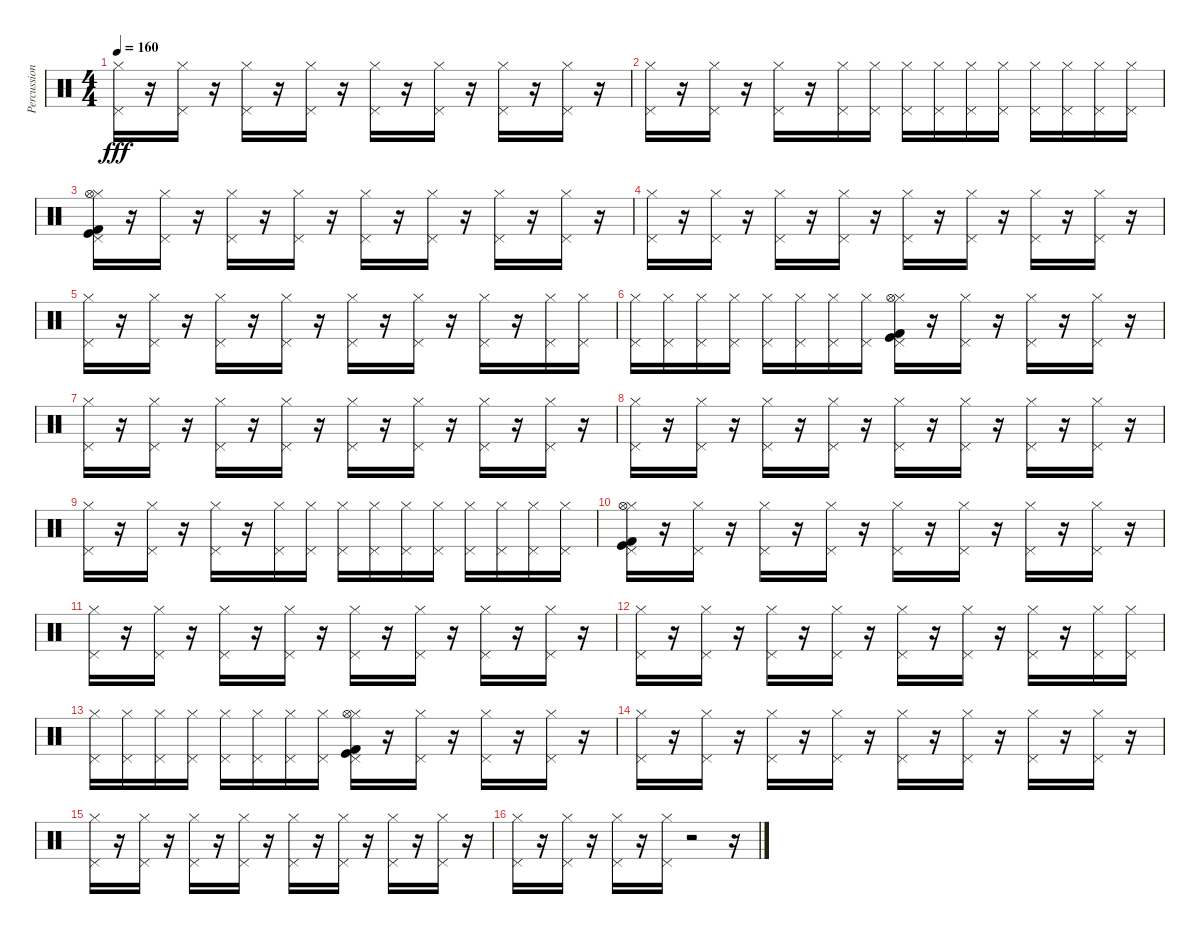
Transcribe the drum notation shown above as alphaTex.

\track ("Percussion" "Percussion") {instrument percussion}
\staff {score}
\articulation defaults
\ts (4 4)
\tempo 160
\clef neutral
\ks c
("Pedal Hi-Hat (hit)" "Hi-Hat (closed)").16{dy fff} r.16 ("Pedal Hi-Hat (hit)" "Hi-Hat (closed)").16 r.16 ("Pedal Hi-Hat (hit)" "Hi-Hat (closed)").16 r.16 ("Pedal Hi-Hat (hit)" "Hi-Hat (closed)").16 r.16 ("Pedal Hi-Hat (hit)" "Hi-Hat (closed)").16 r.16 ("Pedal Hi-Hat (hit)" "Hi-Hat (closed)").16 r.16 ("Pedal Hi-Hat (hit)" "Hi-Hat (closed)").16 r.16 ("Pedal Hi-Hat (hit)" "Hi-Hat (closed)").16 r.16 |
("Pedal Hi-Hat (hit)" "Hi-Hat (closed)").16 r.16 ("Pedal Hi-Hat (hit)" "Hi-Hat (closed)").16 r.16 ("Pedal Hi-Hat (hit)" "Hi-Hat (closed)").16 r.16 ("Pedal Hi-Hat (hit)" "Hi-Hat (closed)").16 ("Hi-Hat (closed)" "Pedal Hi-Hat (hit)").16 ("Pedal Hi-Hat (hit)" "Hi-Hat (closed)").16 ("Hi-Hat (closed)" "Pedal Hi-Hat (hit)").16 ("Hi-Hat (closed)" "Pedal Hi-Hat (hit)").16 ("Hi-Hat (closed)" "Pedal Hi-Hat (hit)").16 ("Pedal Hi-Hat (hit)" "Hi-Hat (closed)").16 ("Hi-Hat (closed)" "Pedal Hi-Hat (hit)").16 ("Hi-Hat (closed)" "Pedal Hi-Hat (hit)").16 ("Hi-Hat (closed)" "Pedal Hi-Hat (hit)").16 |
("Kick (hit) 2" "Pedal Hi-Hat (hit)" "Hi-Hat (closed)" "Kick (hit)" "Hi-Hat (open)").16 r.16 ("Pedal Hi-Hat (hit)" "Hi-Hat (closed)").16 r.16 ("Pedal Hi-Hat (hit)" "Hi-Hat (closed)").16 r.16 ("Pedal Hi-Hat (hit)" "Hi-Hat (closed)").16 r.16 ("Pedal Hi-Hat (hit)" "Hi-Hat (closed)").16 r.16 ("Pedal Hi-Hat (hit)" "Hi-Hat (closed)").16 r.16 ("Pedal Hi-Hat (hit)" "Hi-Hat (closed)").16 r.16 ("Pedal Hi-Hat (hit)" "Hi-Hat (closed)").16 r.16 |
("Pedal Hi-Hat (hit)" "Hi-Hat (closed)").16 r.16 ("Pedal Hi-Hat (hit)" "Hi-Hat (closed)").16 r.16 ("Pedal Hi-Hat (hit)" "Hi-Hat (closed)").16 r.16 ("Pedal Hi-Hat (hit)" "Hi-Hat (closed)").16 r.16 ("Pedal Hi-Hat (hit)" "Hi-Hat (closed)").16 r.16 ("Pedal Hi-Hat (hit)" "Hi-Hat (closed)").16 r.16 ("Pedal Hi-Hat (hit)" "Hi-Hat (closed)").16 r.16 ("Pedal Hi-Hat (hit)" "Hi-Hat (closed)").16 r.16 |
("Pedal Hi-Hat (hit)" "Hi-Hat (closed)").16 r.16 ("Pedal Hi-Hat (hit)" "Hi-Hat (closed)").16 r.16 ("Pedal Hi-Hat (hit)" "Hi-Hat (closed)").16 r.16 ("Pedal Hi-Hat (hit)" "Hi-Hat (closed)").16 r.16 ("Pedal Hi-Hat (hit)" "Hi-Hat (closed)").16 r.16 ("Pedal Hi-Hat (hit)" "Hi-Hat (closed)").16 r.16 ("Pedal Hi-Hat (hit)" "Hi-Hat (closed)").16 r.16 ("Pedal Hi-Hat (hit)" "Hi-Hat (closed)").16 ("Hi-Hat (closed)" "Pedal Hi-Hat (hit)").16 |
("Pedal Hi-Hat (hit)" "Hi-Hat (closed)").16 ("Hi-Hat (closed)" "Pedal Hi-Hat (hit)").16 ("Hi-Hat (closed)" "Pedal Hi-Hat (hit)").16 ("Hi-Hat (closed)" "Pedal Hi-Hat (hit)").16 ("Pedal Hi-Hat (hit)" "Hi-Hat (closed)").16 ("Hi-Hat (closed)" "Pedal Hi-Hat (hit)").16 ("Hi-Hat (closed)" "Pedal Hi-Hat (hit)").16 ("Hi-Hat (closed)" "Pedal Hi-Hat (hit)").16 ("Kick (hit) 2" "Pedal Hi-Hat (hit)" "Hi-Hat (closed)" "Kick (hit)" "Hi-Hat (open)").16 r.16 ("Pedal Hi-Hat (hit)" "Hi-Hat (closed)").16 r.16 ("Pedal Hi-Hat (hit)" "Hi-Hat (closed)").16 r.16 ("Pedal Hi-Hat (hit)" "Hi-Hat (closed)").16 r.16 |
("Pedal Hi-Hat (hit)" "Hi-Hat (closed)").16 r.16 ("Pedal Hi-Hat (hit)" "Hi-Hat (closed)").16 r.16 ("Pedal Hi-Hat (hit)" "Hi-Hat (closed)").16 r.16 ("Pedal Hi-Hat (hit)" "Hi-Hat (closed)").16 r.16 ("Pedal Hi-Hat (hit)" "Hi-Hat (closed)").16 r.16 ("Pedal Hi-Hat (hit)" "Hi-Hat (closed)").16 r.16 ("Pedal Hi-Hat (hit)" "Hi-Hat (closed)").16 r.16 ("Pedal Hi-Hat (hit)" "Hi-Hat (closed)").16 r.16 |
("Pedal Hi-Hat (hit)" "Hi-Hat (closed)").16 r.16 ("Pedal Hi-Hat (hit)" "Hi-Hat (closed)").16 r.16 ("Pedal Hi-Hat (hit)" "Hi-Hat (closed)").16 r.16 ("Pedal Hi-Hat (hit)" "Hi-Hat (closed)").16 r.16 ("Pedal Hi-Hat (hit)" "Hi-Hat (closed)").16 r.16 ("Pedal Hi-Hat (hit)" "Hi-Hat (closed)").16 r.16 ("Pedal Hi-Hat (hit)" "Hi-Hat (closed)").16 r.16 ("Pedal Hi-Hat (hit)" "Hi-Hat (closed)").16 r.16 |
("Pedal Hi-Hat (hit)" "Hi-Hat (closed)").16 r.16 ("Pedal Hi-Hat (hit)" "Hi-Hat (closed)").16 r.16 ("Pedal Hi-Hat (hit)" "Hi-Hat (closed)").16 r.16 ("Pedal Hi-Hat (hit)" "Hi-Hat (closed)").16 ("Hi-Hat (closed)" "Pedal Hi-Hat (hit)").16 ("Pedal Hi-Hat (hit)" "Hi-Hat (closed)").16 ("Hi-Hat (closed)" "Pedal Hi-Hat (hit)").16 ("Hi-Hat (closed)" "Pedal Hi-Hat (hit)").16 ("Hi-Hat (closed)" "Pedal Hi-Hat (hit)").16 ("Pedal Hi-Hat (hit)" "Hi-Hat (closed)").16 ("Hi-Hat (closed)" "Pedal Hi-Hat (hit)").16 ("Hi-Hat (closed)" "Pedal Hi-Hat (hit)").16 ("Hi-Hat (closed)" "Pedal Hi-Hat (hit)").16 |
("Kick (hit) 2" "Pedal Hi-Hat (hit)" "Hi-Hat (closed)" "Kick (hit)" "Hi-Hat (open)").16 r.16 ("Pedal Hi-Hat (hit)" "Hi-Hat (closed)").16 r.16 ("Pedal Hi-Hat (hit)" "Hi-Hat (closed)").16 r.16 ("Pedal Hi-Hat (hit)" "Hi-Hat (closed)").16 r.16 ("Pedal Hi-Hat (hit)" "Hi-Hat (closed)").16 r.16 ("Pedal Hi-Hat (hit)" "Hi-Hat (closed)").16 r.16 ("Pedal Hi-Hat (hit)" "Hi-Hat (closed)").16 r.16 ("Pedal Hi-Hat (hit)" "Hi-Hat (closed)").16 r.16 |
("Pedal Hi-Hat (hit)" "Hi-Hat (closed)").16 r.16 ("Pedal Hi-Hat (hit)" "Hi-Hat (closed)").16 r.16 ("Pedal Hi-Hat (hit)" "Hi-Hat (closed)").16 r.16 ("Pedal Hi-Hat (hit)" "Hi-Hat (closed)").16 r.16 ("Pedal Hi-Hat (hit)" "Hi-Hat (closed)").16 r.16 ("Pedal Hi-Hat (hit)" "Hi-Hat (closed)").16 r.16 ("Pedal Hi-Hat (hit)" "Hi-Hat (closed)").16 r.16 ("Pedal Hi-Hat (hit)" "Hi-Hat (closed)").16 r.16 |
("Pedal Hi-Hat (hit)" "Hi-Hat (closed)").16 r.16 ("Pedal Hi-Hat (hit)" "Hi-Hat (closed)").16 r.16 ("Pedal Hi-Hat (hit)" "Hi-Hat (closed)").16 r.16 ("Pedal Hi-Hat (hit)" "Hi-Hat (closed)").16 r.16 ("Pedal Hi-Hat (hit)" "Hi-Hat (closed)").16 r.16 ("Pedal Hi-Hat (hit)" "Hi-Hat (closed)").16 r.16 ("Pedal Hi-Hat (hit)" "Hi-Hat (closed)").16 r.16 ("Pedal Hi-Hat (hit)" "Hi-Hat (closed)").16 ("Hi-Hat (closed)" "Pedal Hi-Hat (hit)").16 |
("Pedal Hi-Hat (hit)" "Hi-Hat (closed)").16 ("Hi-Hat (closed)" "Pedal Hi-Hat (hit)").16 ("Hi-Hat (closed)" "Pedal Hi-Hat (hit)").16 ("Hi-Hat (closed)" "Pedal Hi-Hat (hit)").16 ("Pedal Hi-Hat (hit)" "Hi-Hat (closed)").16 ("Hi-Hat (closed)" "Pedal Hi-Hat (hit)").16 ("Hi-Hat (closed)" "Pedal Hi-Hat (hit)").16 ("Hi-Hat (closed)" "Pedal Hi-Hat (hit)").16 ("Kick (hit) 2" "Pedal Hi-Hat (hit)" "Hi-Hat (closed)" "Kick (hit)" "Hi-Hat (open)").16 r.16 ("Pedal Hi-Hat (hit)" "Hi-Hat (closed)").16 r.16 ("Pedal Hi-Hat (hit)" "Hi-Hat (closed)").16 r.16 ("Pedal Hi-Hat (hit)" "Hi-Hat (closed)").16 r.16 |
("Pedal Hi-Hat (hit)" "Hi-Hat (closed)").16 r.16 ("Pedal Hi-Hat (hit)" "Hi-Hat (closed)").16 r.16 ("Pedal Hi-Hat (hit)" "Hi-Hat (closed)").16 r.16 ("Pedal Hi-Hat (hit)" "Hi-Hat (closed)").16 r.16 ("Pedal Hi-Hat (hit)" "Hi-Hat (closed)").16 r.16 ("Pedal Hi-Hat (hit)" "Hi-Hat (closed)").16 r.16 ("Pedal Hi-Hat (hit)" "Hi-Hat (closed)").16 r.16 ("Pedal Hi-Hat (hit)" "Hi-Hat (closed)").16 r.16 |
("Pedal Hi-Hat (hit)" "Hi-Hat (closed)").16 r.16 ("Pedal Hi-Hat (hit)" "Hi-Hat (closed)").16 r.16 ("Pedal Hi-Hat (hit)" "Hi-Hat (closed)").16 r.16 ("Pedal Hi-Hat (hit)" "Hi-Hat (closed)").16 r.16 ("Pedal Hi-Hat (hit)" "Hi-Hat (closed)").16 r.16 ("Pedal Hi-Hat (hit)" "Hi-Hat (closed)").16 r.16 ("Pedal Hi-Hat (hit)" "Hi-Hat (closed)").16 r.16 ("Pedal Hi-Hat (hit)" "Hi-Hat (closed)").16 r.16 |
("Pedal Hi-Hat (hit)" "Hi-Hat (closed)").16 r.16 ("Pedal Hi-Hat (hit)" "Hi-Hat (closed)").16 r.16 ("Pedal Hi-Hat (hit)" "Hi-Hat (closed)").16 r.16 ("Pedal Hi-Hat (hit)" "Hi-Hat (closed)").16 r.2 r.16
